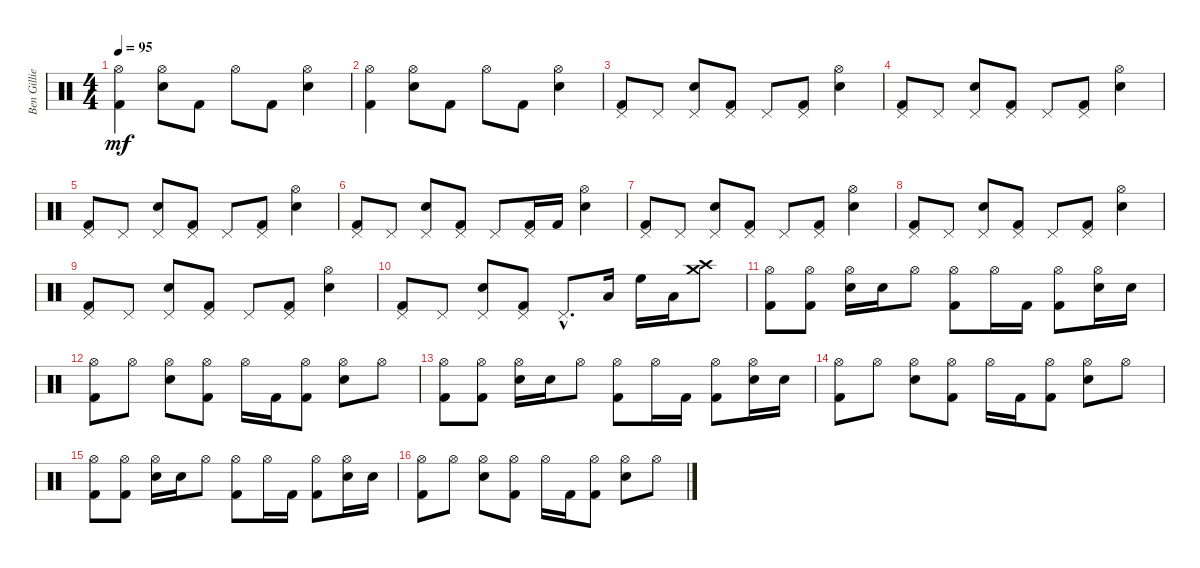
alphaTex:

\track ("Ben Gillies" "Ben Gillie") {instrument percussion}
\staff {score}
\articulation defaults
\ts (4 4)
\tempo 95
\clef neutral
\ks c
("Hi-Hat (open)" "Kick (hit) 2").4{dy mf} ("Hi-Hat (open)" "Electric Snare (hit)").8 "Kick (hit) 2".8 "Hi-Hat (open)".8 "Kick (hit) 2".8 ("Hi-Hat (open)" "Electric Snare (hit)").4 |
("Hi-Hat (open)" "Kick (hit) 2").4 ("Hi-Hat (open)" "Electric Snare (hit)").8 "Kick (hit) 2".8 "Hi-Hat (open)".8 "Kick (hit) 2".8 ("Hi-Hat (open)" "Electric Snare (hit)").4 |
("Pedal Hi-Hat (hit)" "Kick (hit) 2").8 "Pedal Hi-Hat (hit)".8 ("Pedal Hi-Hat (hit)" "Electric Snare (hit)").8 ("Pedal Hi-Hat (hit)" "Kick (hit) 2").8 "Pedal Hi-Hat (hit)".8 ("Pedal Hi-Hat (hit)" "Kick (hit) 2").8 ("Hi-Hat (open)" "Electric Snare (hit)").4 |
("Pedal Hi-Hat (hit)" "Kick (hit) 2").8 "Pedal Hi-Hat (hit)".8 ("Pedal Hi-Hat (hit)" "Electric Snare (hit)").8 ("Pedal Hi-Hat (hit)" "Kick (hit) 2").8 "Pedal Hi-Hat (hit)".8 ("Pedal Hi-Hat (hit)" "Kick (hit) 2").8 ("Hi-Hat (open)" "Electric Snare (hit)").4 |
("Pedal Hi-Hat (hit)" "Kick (hit) 2").8 "Pedal Hi-Hat (hit)".8 ("Pedal Hi-Hat (hit)" "Electric Snare (hit)").8 ("Pedal Hi-Hat (hit)" "Kick (hit) 2").8 "Pedal Hi-Hat (hit)".8 ("Pedal Hi-Hat (hit)" "Kick (hit) 2").8 ("Hi-Hat (open)" "Electric Snare (hit)").4 |
("Pedal Hi-Hat (hit)" "Kick (hit) 2").8 "Pedal Hi-Hat (hit)".8 ("Pedal Hi-Hat (hit)" "Electric Snare (hit)").8 ("Pedal Hi-Hat (hit)" "Kick (hit) 2").8 "Pedal Hi-Hat (hit)".8 ("Pedal Hi-Hat (hit)" "Kick (hit) 2").16 "Kick (hit) 2".16 ("Hi-Hat (open)" "Electric Snare (hit)").4 |
("Pedal Hi-Hat (hit)" "Kick (hit) 2").8 "Pedal Hi-Hat (hit)".8 ("Pedal Hi-Hat (hit)" "Electric Snare (hit)").8 ("Pedal Hi-Hat (hit)" "Kick (hit) 2").8 "Pedal Hi-Hat (hit)".8 ("Pedal Hi-Hat (hit)" "Kick (hit) 2").8 ("Hi-Hat (open)" "Electric Snare (hit)").4 |
("Pedal Hi-Hat (hit)" "Kick (hit) 2").8 "Pedal Hi-Hat (hit)".8 ("Pedal Hi-Hat (hit)" "Electric Snare (hit)").8 ("Pedal Hi-Hat (hit)" "Kick (hit) 2").8 "Pedal Hi-Hat (hit)".8 ("Pedal Hi-Hat (hit)" "Kick (hit) 2").8 ("Hi-Hat (open)" "Electric Snare (hit)").4 |
("Pedal Hi-Hat (hit)" "Kick (hit) 2").8 "Pedal Hi-Hat (hit)".8 ("Pedal Hi-Hat (hit)" "Electric Snare (hit)").8 ("Pedal Hi-Hat (hit)" "Kick (hit) 2").8 "Pedal Hi-Hat (hit)".8 ("Pedal Hi-Hat (hit)" "Kick (hit) 2").8 ("Hi-Hat (open)" "Electric Snare (hit)").4 |
("Pedal Hi-Hat (hit)" "Kick (hit) 2").8 "Pedal Hi-Hat (hit)".8 ("Pedal Hi-Hat (hit)" "Electric Snare (hit)").8 ("Pedal Hi-Hat (hit)" "Kick (hit) 2").8 "Pedal Hi-Hat (hit)"{hac}.8{d} "Low Tom (hit)".16 "High Floor Tom (hit)".16 "Low Floor Tom (hit)".16 ("Crash high (hit)" "Crash medium (hit)").8 |
("Hi-Hat (open)" "Kick (hit) 2").8 ("Hi-Hat (open)" "Kick (hit) 2").8 ("Hi-Hat (open)" "Electric Snare (hit)").16 "Electric Snare (hit)".16 "Hi-Hat (open)".8 ("Hi-Hat (open)" "Kick (hit) 2").8 "Hi-Hat (open)".16 "Kick (hit) 2".16 ("Hi-Hat (open)" "Kick (hit) 2").8 ("Hi-Hat (open)" "Electric Snare (hit)").16 "Electric Snare (hit)".16 |
("Hi-Hat (open)" "Kick (hit) 2").8 "Hi-Hat (open)".8 ("Hi-Hat (open)" "Electric Snare (hit)").8 ("Hi-Hat (open)" "Kick (hit) 2").8 "Hi-Hat (open)".16 "Kick (hit) 2".16 ("Hi-Hat (open)" "Kick (hit) 2").8 ("Hi-Hat (open)" "Electric Snare (hit)").8 "Hi-Hat (open)".8 |
("Hi-Hat (open)" "Kick (hit) 2").8 ("Hi-Hat (open)" "Kick (hit) 2").8 ("Hi-Hat (open)" "Electric Snare (hit)").16 "Electric Snare (hit)".16 "Hi-Hat (open)".8 ("Hi-Hat (open)" "Kick (hit) 2").8 "Hi-Hat (open)".16 "Kick (hit) 2".16 ("Hi-Hat (open)" "Kick (hit) 2").8 ("Hi-Hat (open)" "Electric Snare (hit)").16 "Electric Snare (hit)".16 |
("Hi-Hat (open)" "Kick (hit) 2").8 "Hi-Hat (open)".8 ("Hi-Hat (open)" "Electric Snare (hit)").8 ("Hi-Hat (open)" "Kick (hit) 2").8 "Hi-Hat (open)".16 "Kick (hit) 2".16 ("Hi-Hat (open)" "Kick (hit) 2").8 ("Hi-Hat (open)" "Electric Snare (hit)").8 "Hi-Hat (open)".8 |
("Hi-Hat (open)" "Kick (hit) 2").8 ("Hi-Hat (open)" "Kick (hit) 2").8 ("Hi-Hat (open)" "Electric Snare (hit)").16 "Electric Snare (hit)".16 "Hi-Hat (open)".8 ("Hi-Hat (open)" "Kick (hit) 2").8 "Hi-Hat (open)".16 "Kick (hit) 2".16 ("Hi-Hat (open)" "Kick (hit) 2").8 ("Hi-Hat (open)" "Electric Snare (hit)").16 "Electric Snare (hit)".16 |
("Hi-Hat (open)" "Kick (hit) 2").8 "Hi-Hat (open)".8 ("Hi-Hat (open)" "Electric Snare (hit)").8 ("Hi-Hat (open)" "Kick (hit) 2").8 "Hi-Hat (open)".16 "Kick (hit) 2".16 ("Hi-Hat (open)" "Kick (hit) 2").8 ("Hi-Hat (open)" "Electric Snare (hit)").8 "Hi-Hat (open)".8
